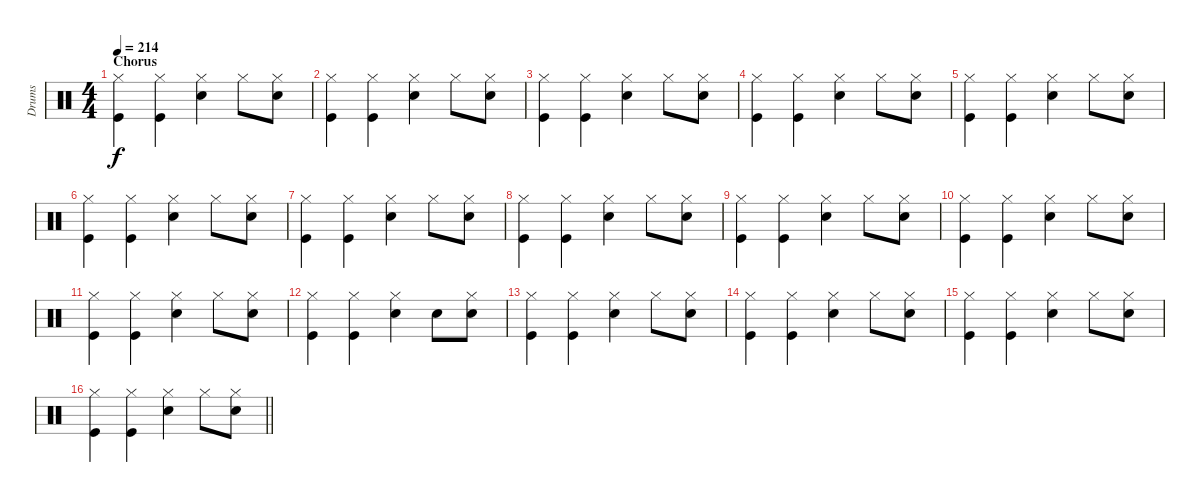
\track ("Drums" "Drums") {instrument percussion}
\staff {score}
\articulation defaults
\ts (4 4)
\section ("" "Chorus")
\tempo 214
\clef neutral
\ks c
("Hi-Hat (closed)" "Kick (hit)").4{dy f} ("Hi-Hat (closed)" "Kick (hit)").4 ("Hi-Hat (closed)" "Snare (hit) 2").4 "Hi-Hat (closed)".8 ("Hi-Hat (closed)" "Snare (hit) 2").8 |
("Hi-Hat (closed)" "Kick (hit)").4 ("Hi-Hat (closed)" "Kick (hit)").4 ("Hi-Hat (closed)" "Snare (hit) 2").4 "Hi-Hat (closed)".8 ("Hi-Hat (closed)" "Snare (hit) 2").8 |
("Hi-Hat (closed)" "Kick (hit)").4 ("Hi-Hat (closed)" "Kick (hit)").4 ("Hi-Hat (closed)" "Snare (hit) 2").4 "Hi-Hat (closed)".8 ("Hi-Hat (closed)" "Snare (hit) 2").8 |
("Hi-Hat (closed)" "Kick (hit)").4 ("Hi-Hat (closed)" "Kick (hit)").4 ("Hi-Hat (closed)" "Snare (hit) 2").4 "Hi-Hat (closed)".8 ("Hi-Hat (closed)" "Snare (hit) 2").8 |
("Hi-Hat (closed)" "Kick (hit)").4 ("Hi-Hat (closed)" "Kick (hit)").4 ("Hi-Hat (closed)" "Snare (hit) 2").4 "Hi-Hat (closed)".8 ("Hi-Hat (closed)" "Snare (hit) 2").8 |
("Hi-Hat (closed)" "Kick (hit)").4 ("Hi-Hat (closed)" "Kick (hit)").4 ("Hi-Hat (closed)" "Snare (hit) 2").4 "Hi-Hat (closed)".8 ("Hi-Hat (closed)" "Snare (hit) 2").8 |
("Hi-Hat (closed)" "Kick (hit)").4 ("Hi-Hat (closed)" "Kick (hit)").4 ("Hi-Hat (closed)" "Snare (hit) 2").4 "Hi-Hat (closed)".8 ("Hi-Hat (closed)" "Snare (hit) 2").8 |
("Hi-Hat (closed)" "Kick (hit)").4 ("Hi-Hat (closed)" "Kick (hit)").4 ("Hi-Hat (closed)" "Snare (hit) 2").4 "Hi-Hat (closed)".8 ("Hi-Hat (closed)" "Snare (hit) 2").8 |
("Hi-Hat (closed)" "Kick (hit)").4 ("Hi-Hat (closed)" "Kick (hit)").4 ("Hi-Hat (closed)" "Snare (hit) 2").4 "Hi-Hat (closed)".8 ("Hi-Hat (closed)" "Snare (hit) 2").8 |
("Hi-Hat (closed)" "Kick (hit)").4 ("Hi-Hat (closed)" "Kick (hit)").4 ("Hi-Hat (closed)" "Snare (hit) 2").4 "Hi-Hat (closed)".8 ("Hi-Hat (closed)" "Snare (hit) 2").8 |
("Hi-Hat (closed)" "Kick (hit)").4 ("Hi-Hat (closed)" "Kick (hit)").4 ("Hi-Hat (closed)" "Snare (hit) 2").4 "Hi-Hat (closed)".8 ("Hi-Hat (closed)" "Snare (hit) 2").8 |
("Hi-Hat (closed)" "Kick (hit)").4 ("Hi-Hat (closed)" "Kick (hit)").4 ("Hi-Hat (closed)" "Snare (hit) 2").4 "Snare (hit)".8 ("Hi-Hat (closed)" "Snare (hit) 2").8 |
("Hi-Hat (closed)" "Kick (hit)").4 ("Hi-Hat (closed)" "Kick (hit)").4 ("Hi-Hat (closed)" "Snare (hit) 2").4 "Hi-Hat (closed)".8 ("Hi-Hat (closed)" "Snare (hit) 2").8 |
("Hi-Hat (closed)" "Kick (hit)").4 ("Hi-Hat (closed)" "Kick (hit)").4 ("Hi-Hat (closed)" "Snare (hit) 2").4 "Hi-Hat (closed)".8 ("Hi-Hat (closed)" "Snare (hit) 2").8 |
("Hi-Hat (closed)" "Kick (hit)").4 ("Hi-Hat (closed)" "Kick (hit)").4 ("Hi-Hat (closed)" "Snare (hit) 2").4 "Hi-Hat (closed)".8 ("Hi-Hat (closed)" "Snare (hit) 2").8 |
\barLineRight lightlight
("Hi-Hat (closed)" "Kick (hit)").4 ("Hi-Hat (closed)" "Kick (hit)").4 ("Hi-Hat (closed)" "Snare (hit) 2").4 "Hi-Hat (closed)".8 ("Hi-Hat (closed)" "Snare (hit) 2").8
